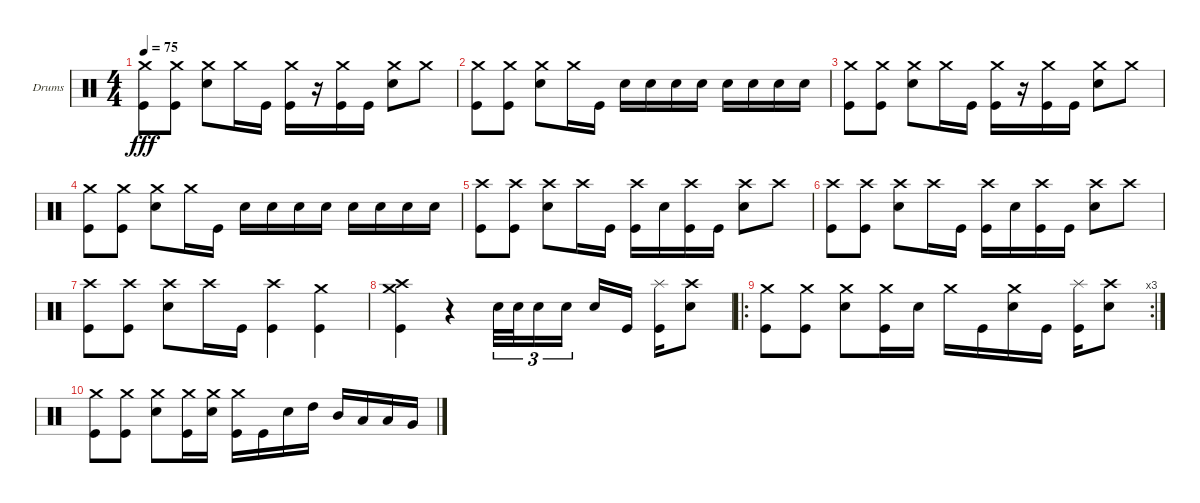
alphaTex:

\bracketExtendMode groupsimilarinstruments
\firstSystemTrackNameOrientation horizontal
\otherSystemsTrackNameOrientation horizontal
\track ("Drumkit" "Drums") {instrument percussion}
\staff {score}
\articulation defaults
\ts (4 4)
\tempo 75
\clef neutral
\ks c
("Kick (hit)" "Crash medium (hit)").8{dy fff} ("Kick (hit)" "Crash medium (hit)").8 ("Snare (hit) 2" "Crash medium (hit)").8 "Crash medium (hit)".16 "Kick (hit)".16 ("Kick (hit)" "Crash medium (hit)").16 r.16 ("Kick (hit)" "Crash medium (hit)").16 "Kick (hit)".16 ("Snare (hit) 2" "Crash medium (hit)").8 "Crash medium (hit)".8 |
("Kick (hit)" "Crash medium (hit)").8 ("Kick (hit)" "Crash medium (hit)").8 ("Snare (hit) 2" "Crash medium (hit)").8 "Crash medium (hit)".16 "Kick (hit)".16 "Snare (hit) 2".16 "Snare (hit) 2".16 "Snare (hit) 2".16 "Snare (hit) 2".16 "Snare (hit) 2".16 "Snare (hit) 2".16 "Snare (hit) 2".16 "Snare (hit) 2".16 |
("Kick (hit)" "Crash medium (hit)").8 ("Kick (hit)" "Crash medium (hit)").8 ("Snare (hit) 2" "Crash medium (hit)").8 "Crash medium (hit)".16 "Kick (hit)".16 ("Kick (hit)" "Crash medium (hit)").16 r.16 ("Kick (hit)" "Crash medium (hit)").16 "Kick (hit)".16 ("Snare (hit) 2" "Crash medium (hit)").8 "Crash medium (hit)".8 |
("Kick (hit)" "Crash medium (hit)").8 ("Kick (hit)" "Crash medium (hit)").8 ("Snare (hit) 2" "Crash medium (hit)").8 "Crash medium (hit)".16 "Kick (hit)".16 "Snare (hit) 2".16 "Snare (hit) 2".16 "Snare (hit) 2".16 "Snare (hit) 2".16 "Snare (hit) 2".16 "Snare (hit) 2".16 "Snare (hit) 2".16 "Snare (hit) 2".16 |
("Kick (hit)" "Crash high (hit)").8 ("Kick (hit)" "Crash high (hit)").8 ("Snare (hit) 2" "Crash high (hit)").8 "Crash high (hit)".16 "Kick (hit)".16 ("Kick (hit)" "Crash high (hit)").16 "Snare (hit) 2".16 ("Kick (hit)" "Crash high (hit)").16 "Kick (hit)".16 ("Snare (hit) 2" "Crash high (hit)").8 "Crash high (hit)".8 |
("Kick (hit)" "Crash high (hit)").8 ("Kick (hit)" "Crash high (hit)").8 ("Snare (hit) 2" "Crash high (hit)").8 "Crash high (hit)".16 "Kick (hit)".16 ("Kick (hit)" "Crash high (hit)").16 "Snare (hit) 2".16 ("Kick (hit)" "Crash high (hit)").16 "Kick (hit)".16 ("Snare (hit) 2" "Crash high (hit)").8 "Crash high (hit)".8 |
("Kick (hit)" "Crash high (hit)").8 ("Kick (hit)" "Crash high (hit)").8 ("Snare (hit) 2" "Crash high (hit)").8 "Crash high (hit)".16 "Kick (hit)".16 ("Kick (hit)" "Crash high (hit)").4 ("Crash medium (hit)" "Kick (hit)").4 |
("Kick (hit)" "Crash medium (hit)" "Crash high (hit)").4 r.4 "Snare (hit) 2".32{tu (3 2)} "Snare (hit) 2".32{tu (3 2)} "Snare (hit) 2".16{tu (3 2)} "Snare (hit) 2".16{tu (3 2)} "Snare (hit) 2".16 "Kick (hit)".16 ("Kick (hit)" "Splash (hit)").16 ("Snare (hit) 2" "Crash high (hit)").8 |
\ro
\rc 3
("Kick (hit)" "Crash medium (hit)").8 ("Kick (hit)" "Crash medium (hit)").8 ("Snare (hit) 2" "Crash medium (hit)").8 ("Kick (hit)" "Crash medium (hit)").16 "Snare (hit) 2".16 "Crash medium (hit)".16 "Kick (hit)".16 ("Snare (hit) 2" "Crash medium (hit)").16 "Kick (hit)".16 ("Kick (hit)" "Splash (hit)").16 ("Snare (hit) 2" "Crash high (hit)").8 |
("Kick (hit)" "Crash medium (hit)").8 ("Kick (hit)" "Crash medium (hit)").8 ("Snare (hit) 2" "Crash medium (hit)").8 ("Kick (hit)" "Crash medium (hit)").16 ("Snare (hit) 2" "Crash medium (hit)").16 ("Crash medium (hit)" "Kick (hit)").16 "Kick (hit)".16 "Snare (hit) 2".16 "High Tom (hit)".16 "Mid Tom (hit)".16 "Low Tom (hit)".16 "Low Tom (hit)".16 "Very Low Tom (hit)".16
